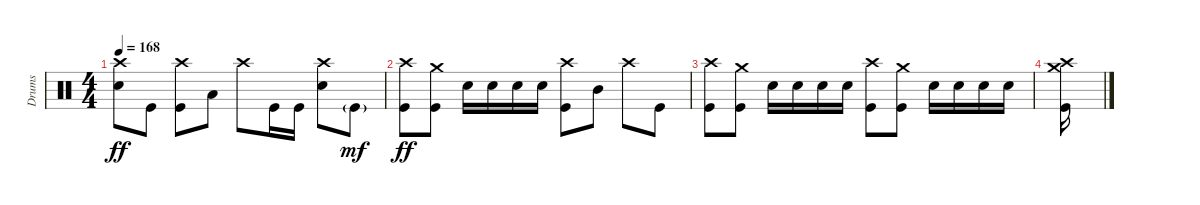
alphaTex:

\track ("Drums" "Drums") {instrument percussion}
\staff {score}
\articulation defaults
\ts (4 4)
\tempo 168
\clef neutral
\ks c
("Crash high (hit)" "Snare (hit) 2").8{dy ff} "Kick (hit)".8 ("Crash high (hit)" "Kick (hit)").8 "Low Floor Tom (hit)".8 "Crash high (hit)".8 "Kick (hit)".16 "Kick (hit)".16 ("Crash high (hit)" "Snare (hit) 2").8 "Kick (hit)"{g}.8{dy mf} |
("Crash high (hit)" "Kick (hit)").8{dy ff} ("Crash medium (hit)" "Kick (hit)").8 "Snare (hit) 2".16 "Snare (hit) 2".16 "Snare (hit) 2".16 "Snare (hit) 2".16 ("Crash high (hit)" "Kick (hit)").8 "Mid Tom (hit)".8 "Crash high (hit)".8 "Kick (hit)".8 |
("Crash high (hit)" "Kick (hit)").8 ("Crash medium (hit)" "Kick (hit)").8 "Snare (hit) 2".16 "Snare (hit) 2".16 "Snare (hit) 2".16 "Snare (hit) 2".16 ("Crash high (hit)" "Kick (hit)").8 ("Crash medium (hit)" "Kick (hit)").8 "Snare (hit) 2".16 "Snare (hit) 2".16 "Snare (hit) 2".16 "Snare (hit) 2".16 |
("Crash high (hit)" "Crash medium (hit)" "Kick (hit)").16
